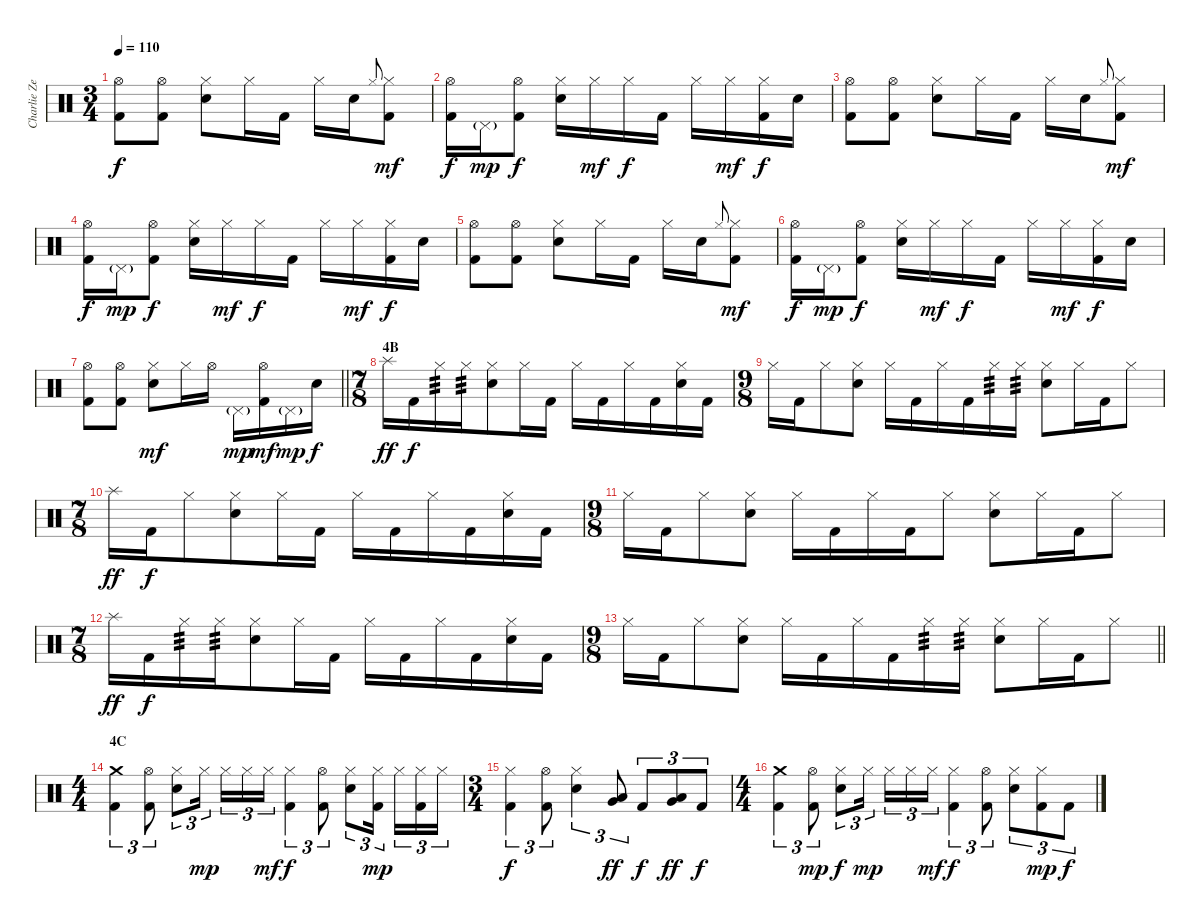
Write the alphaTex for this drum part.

\track ("Charlie Zeleny - Drums" "Charlie Ze") {instrument percussion}
\staff {score}
\articulation defaults
\ts (3 4)
\tempo 110
\clef neutral
\ks c
("Hi-Hat (open)" "Kick (hit) 2").8{dy f} ("Hi-Hat (open)" "Kick (hit) 2").8 ("Hi-Hat (closed)" "Electric Snare (hit)").8 "Hi-Hat (closed)".16 "Kick (hit) 2".16 "Hi-Hat (closed)".16 "Electric Snare (hit)".16 "Hi-Hat (closed)".8{gr onbeat} ("Hi-Hat (closed)" "Kick (hit) 2").8{dy mf} |
("Hi-Hat (open)" "Kick (hit) 2").16{dy f} "Pedal Hi-Hat (hit)"{g}.16{dy mp} ("Hi-Hat (open)" "Kick (hit) 2").8{dy f} ("Hi-Hat (closed)" "Electric Snare (hit)").16 "Hi-Hat (closed)".16{dy mf} "Hi-Hat (closed)".16{dy f} "Kick (hit) 2".16 "Hi-Hat (closed)".16 "Hi-Hat (closed)".16{dy mf} ("Hi-Hat (closed)" "Kick (hit) 2").16{dy f} "Electric Snare (hit)".16 |
("Hi-Hat (open)" "Kick (hit) 2").8 ("Hi-Hat (open)" "Kick (hit) 2").8 ("Hi-Hat (closed)" "Electric Snare (hit)").8 "Hi-Hat (closed)".16 "Kick (hit) 2".16 "Hi-Hat (closed)".16 "Electric Snare (hit)".16 "Hi-Hat (closed)".8{gr onbeat} ("Hi-Hat (closed)" "Kick (hit) 2").8{dy mf} |
("Hi-Hat (open)" "Kick (hit) 2").16{dy f} "Pedal Hi-Hat (hit)"{g}.16{dy mp} ("Hi-Hat (open)" "Kick (hit) 2").8{dy f} ("Hi-Hat (closed)" "Electric Snare (hit)").16 "Hi-Hat (closed)".16{dy mf} "Hi-Hat (closed)".16{dy f} "Kick (hit) 2".16 "Hi-Hat (closed)".16 "Hi-Hat (closed)".16{dy mf} ("Hi-Hat (closed)" "Kick (hit) 2").16{dy f} "Electric Snare (hit)".16 |
("Hi-Hat (open)" "Kick (hit) 2").8 ("Hi-Hat (open)" "Kick (hit) 2").8 ("Hi-Hat (closed)" "Electric Snare (hit)").8 "Hi-Hat (closed)".16 "Kick (hit) 2".16 "Hi-Hat (closed)".16 "Electric Snare (hit)".16 "Hi-Hat (closed)".8{gr onbeat} ("Hi-Hat (closed)" "Kick (hit) 2").8{dy mf} |
("Hi-Hat (open)" "Kick (hit) 2").16{dy f} "Pedal Hi-Hat (hit)"{g}.16{dy mp} ("Hi-Hat (open)" "Kick (hit) 2").8{dy f} ("Hi-Hat (closed)" "Electric Snare (hit)").16 "Hi-Hat (closed)".16{dy mf} "Hi-Hat (closed)".16{dy f} "Kick (hit) 2".16 "Hi-Hat (closed)".16 "Hi-Hat (closed)".16{dy mf} ("Hi-Hat (closed)" "Kick (hit) 2").16{dy f} "Electric Snare (hit)".16 |
\barLineRight lightlight
("Hi-Hat (open)" "Kick (hit) 2").8 ("Hi-Hat (open)" "Kick (hit) 2").8 ("Hi-Hat (closed)" "Electric Snare (hit)").8{dy mf} "Hi-Hat (closed)".16 "Hi-Hat (open)".16 "Pedal Hi-Hat (hit)"{g}.16{dy mp} ("Hi-Hat (open)" "Kick (hit) 2").16{dy mf} "Pedal Hi-Hat (hit)"{g}.16{dy mp} "Electric Snare (hit)".16{dy f} |
\ts (7 8)
\section ("" "4B")
"Splash (hit)".16{dy ff} "Kick (hit) 2".16{dy f} "Hi-Hat (closed)".16{tp 3} "Hi-Hat (closed)".16{tp 3} ("Hi-Hat (closed)" "Electric Snare (hit)").8 "Hi-Hat (closed)".16 "Kick (hit) 2".16 "Hi-Hat (closed)".16 "Kick (hit) 2".16 "Hi-Hat (closed)".16 "Kick (hit) 2".16 ("Hi-Hat (closed)" "Electric Snare (hit)").16 "Kick (hit) 2".16 |
\ts (9 8)
"Hi-Hat (closed)".16 "Kick (hit) 2".16 "Hi-Hat (closed)".8 ("Hi-Hat (closed)" "Electric Snare (hit)").8 "Hi-Hat (closed)".16 "Kick (hit) 2".16 "Hi-Hat (closed)".16 "Kick (hit) 2".16 "Hi-Hat (closed)".16{tp 3} "Hi-Hat (closed)".16{tp 3} ("Hi-Hat (closed)" "Electric Snare (hit)").8 "Hi-Hat (closed)".16 "Kick (hit) 2".16 "Hi-Hat (closed)".8 |
\ts (7 8)
"Splash (hit)".16{dy ff} "Kick (hit) 2".16{dy f} "Hi-Hat (closed)".8 ("Hi-Hat (closed)" "Electric Snare (hit)").8 "Hi-Hat (closed)".16 "Kick (hit) 2".16 "Hi-Hat (closed)".16 "Kick (hit) 2".16 "Hi-Hat (closed)".16 "Kick (hit) 2".16 ("Hi-Hat (closed)" "Electric Snare (hit)").16 "Kick (hit) 2".16 |
\ts (9 8)
"Hi-Hat (closed)".16 "Kick (hit) 2".16 "Hi-Hat (closed)".8 ("Hi-Hat (closed)" "Electric Snare (hit)").8 "Hi-Hat (closed)".16 "Kick (hit) 2".16 "Hi-Hat (closed)".16 "Kick (hit) 2".16 "Hi-Hat (closed)".8 ("Hi-Hat (closed)" "Electric Snare (hit)").8 "Hi-Hat (closed)".16 "Kick (hit) 2".16 "Hi-Hat (closed)".8 |
\ts (7 8)
"Splash (hit)".16{dy ff} "Kick (hit) 2".16{dy f} "Hi-Hat (closed)".16{tp 3} "Hi-Hat (closed)".16{tp 3} ("Hi-Hat (closed)" "Electric Snare (hit)").8 "Hi-Hat (closed)".16 "Kick (hit) 2".16 "Hi-Hat (closed)".16 "Kick (hit) 2".16 "Hi-Hat (closed)".16 "Kick (hit) 2".16 ("Hi-Hat (closed)" "Electric Snare (hit)").16 "Kick (hit) 2".16 |
\ts (9 8)
\barLineRight lightlight "Hi-Hat (closed)".16 "Kick (hit) 2".16 "Hi-Hat (closed)".8
("Hi-Hat (closed)" "Electric Snare (hit)").8 "Hi-Hat (closed)".16 "Kick (hit) 2".16 "Hi-Hat (closed)".16 "Kick (hit) 2".16 "Hi-Hat (closed)".16{tp 3} "Hi-Hat (closed)".16{tp 3} ("Hi-Hat (closed)" "Electric Snare (hit)").8 "Hi-Hat (closed)".16 "Kick (hit) 2".16 "Hi-Hat (closed)".8 |
\ts (4 4)
\section ("" "4C")
("Crash medium (hit)" "Kick (hit) 2").4{tu (3 2)} ("Hi-Hat (open)" "Kick (hit) 2").8{tu (3 2)} ("Hi-Hat (closed)" "Electric Snare (hit)").8{tu (3 2)} "Hi-Hat (closed)".16{tu (3 2) dy mp beam splitsecondary} "Hi-Hat (closed)".16{tu (3 2)} "Hi-Hat (closed)".16{tu (3 2)} "Hi-Hat (closed)".16{tu (3 2) dy mf} ("Hi-Hat (closed)" "Kick (hit) 2").4{tu (3 2) dy f} ("Hi-Hat (open)" "Kick (hit) 2").8{tu (3 2)} ("Hi-Hat (closed)" "Electric Snare (hit)").8{tu (3 2)} ("Hi-Hat (closed)" "Kick (hit) 2").16{tu (3 2) dy mp beam splitsecondary} "Hi-Hat (closed)".16{tu (3 2)} ("Hi-Hat (closed)" "Kick (hit) 2").16{tu (3 2)} "Hi-Hat (closed)".16{tu (3 2)} |
\ts (3 4)
("Hi-Hat (closed)" "Kick (hit) 2").4{tu (3 2) dy f} ("Hi-Hat (open)" "Kick (hit) 2").8{tu (3 2)} ("Hi-Hat (closed)" "Electric Snare (hit)").4{tu (3 2)} ("Low Tom (hit)" "Very Low Tom (hit)").8{tu (3 2) bd 480 dy ff} "Kick (hit) 2".8{tu (3 2) dy f} ("Low Tom (hit)" "Very Low Tom (hit)").8{tu (3 2) bd 480 dy ff} "Kick (hit) 2".8{tu (3 2) dy f} |
\ts (4 4)
("Crash medium (hit)" "Kick (hit) 2").4{tu (3 2)} ("Hi-Hat (open)" "Kick (hit) 2").8{tu (3 2) dy mp} ("Hi-Hat (closed)" "Electric Snare (hit)").8{tu (3 2) dy f} "Hi-Hat (closed)".16{tu (3 2) dy mp beam splitsecondary} "Hi-Hat (closed)".16{tu (3 2)} "Hi-Hat (closed)".16{tu (3 2)} "Hi-Hat (closed)".16{tu (3 2) dy mf} ("Hi-Hat (closed)" "Kick (hit) 2").4{tu (3 2) dy f} ("Hi-Hat (open)" "Kick (hit) 2").8{tu (3 2)} ("Hi-Hat (closed)" "Electric Snare (hit)").8{tu (3 2)} ("Hi-Hat (closed)" "Kick (hit) 2").8{tu (3 2) dy mp} "Kick (hit) 2".8{tu (3 2) dy f}
